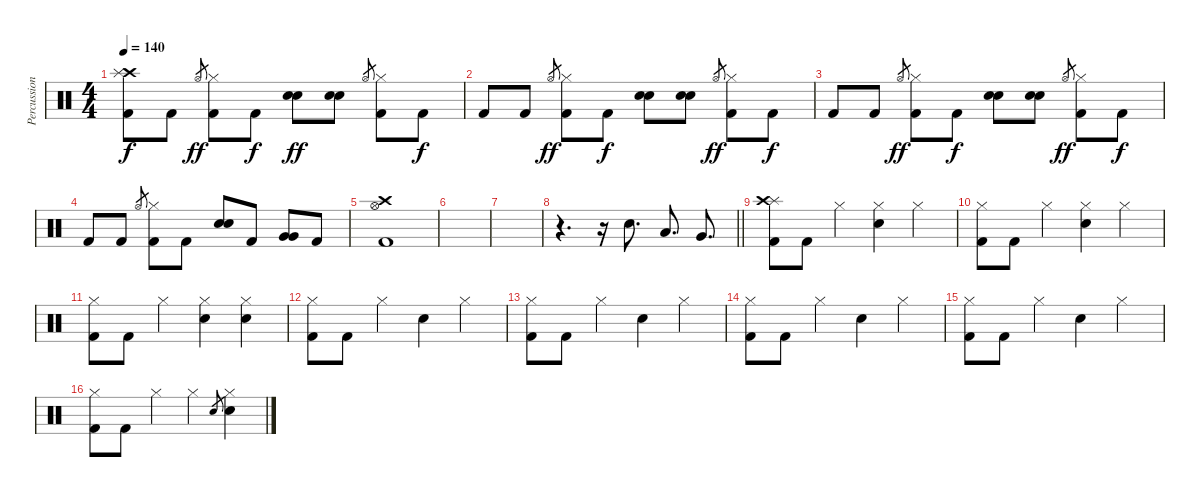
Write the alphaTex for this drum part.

\track ("Percussion" "Percussion") {instrument percussion}
\staff {score}
\articulation defaults
\ts (4 4)
\tempo 140
\clef neutral
\ks c
("Crash high (hit)" "Splash (hit)" "Kick (hit) 2").8{dy f} "Kick (hit) 2".8 "Hi-Hat (open)".8{gr dy ff} ("Hi-Hat (closed)" "Kick (hit) 2").8 "Kick (hit) 2".8{dy f} ("Electric Snare (hit)" "Electric Snare (hit)").8{dy ff} ("Electric Snare (hit)" "Electric Snare (hit)").8 "Hi-Hat (open)".8{gr} ("Hi-Hat (closed)" "Kick (hit) 2").8 "Kick (hit) 2".8{dy f} |
"Kick (hit) 2".8 "Kick (hit) 2".8 "Hi-Hat (open)".8{gr dy ff} ("Hi-Hat (closed)" "Kick (hit) 2").8 "Kick (hit) 2".8{dy f} ("Electric Snare (hit)" "Electric Snare (hit)").8 ("Electric Snare (hit)" "Electric Snare (hit)").8 "Hi-Hat (open)".8{gr dy ff} ("Hi-Hat (closed)" "Kick (hit) 2").8 "Kick (hit) 2".8{dy f} |
"Kick (hit) 2".8 "Kick (hit) 2".8 "Hi-Hat (open)".8{gr dy ff} ("Hi-Hat (closed)" "Kick (hit) 2").8 "Kick (hit) 2".8{dy f} ("Electric Snare (hit)" "Electric Snare (hit)").8 ("Electric Snare (hit)" "Electric Snare (hit)").8 "Hi-Hat (open)".8{gr dy ff} ("Hi-Hat (closed)" "Kick (hit) 2").8 "Kick (hit) 2".8{dy f} |
"Kick (hit) 2".8 "Kick (hit) 2".8 "Hi-Hat (open)".8{gr} ("Hi-Hat (closed)" "Kick (hit) 2").8 "Kick (hit) 2".8 ("Electric Snare (hit)" "Electric Snare (hit)").8 "Kick (hit) 2".8 ("Very Low Tom (hit)" "Very Low Tom (hit)").8 "Kick (hit) 2".8 |
("Crash high (hit)" "Hi-Hat (open)" "Kick (hit) 2").1 |
|
|
\barLineRight lightlight
r.4{d} r.16 "Electric Snare (hit)".8{d} "Low Tom (hit)".8{d} "Very Low Tom (hit)".8{d} |
("Splash (hit)" "Crash high (hit)" "Kick (hit) 2").8 "Kick (hit) 2".8 "Hi-Hat (closed)".4 ("Hi-Hat (closed)" "Electric Snare (hit)").4 "Hi-Hat (closed)".4 |
("Hi-Hat (closed)" "Kick (hit) 2").8 "Kick (hit) 2".8 "Hi-Hat (closed)".4 ("Hi-Hat (closed)" "Electric Snare (hit)").4 "Hi-Hat (closed)".4 |
("Hi-Hat (closed)" "Kick (hit) 2").8 "Kick (hit) 2".8 "Hi-Hat (closed)".4 ("Hi-Hat (closed)" "Electric Snare (hit)").4 ("Hi-Hat (closed)" "Electric Snare (hit)").4 |
("Hi-Hat (closed)" "Kick (hit) 2").8 "Kick (hit) 2".8 "Hi-Hat (closed)".4 "Electric Snare (hit)".4 "Hi-Hat (closed)".4 |
("Hi-Hat (closed)" "Kick (hit) 2").8 "Kick (hit) 2".8 "Hi-Hat (closed)".4 "Electric Snare (hit)".4 "Hi-Hat (closed)".4 |
("Hi-Hat (closed)" "Kick (hit) 2").8 "Kick (hit) 2".8 "Hi-Hat (closed)".4 "Electric Snare (hit)".4 "Hi-Hat (closed)".4 |
("Hi-Hat (closed)" "Kick (hit) 2").8 "Kick (hit) 2".8 "Hi-Hat (closed)".4 "Electric Snare (hit)".4 "Hi-Hat (closed)".4 |
("Hi-Hat (closed)" "Kick (hit) 2").8 "Kick (hit) 2".8 "Hi-Hat (closed)".4 "Hi-Hat (closed)".4 "Electric Snare (hit)".8{gr} ("Hi-Hat (closed)" "Electric Snare (hit)").4
